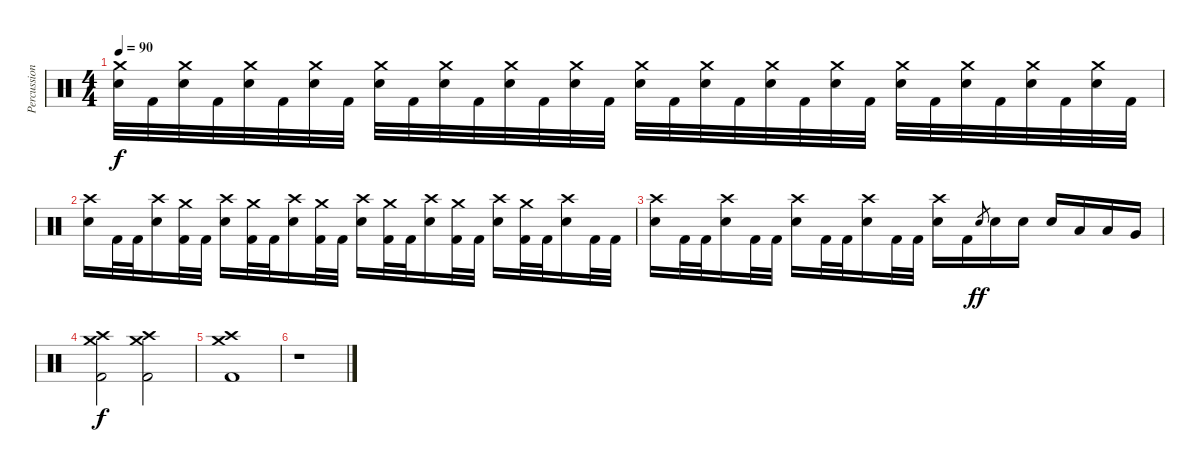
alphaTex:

\track ("Percussion" "Percussion") {instrument percussion}
\staff {score}
\articulation defaults
\ts (4 4)
\tempo 90
\clef neutral
\ks c
("Crash medium (hit)" "Electric Snare (hit)").32{dy f} "Kick (hit) 2".32 ("Crash medium (hit)" "Electric Snare (hit)").32 "Kick (hit) 2".32 ("Crash medium (hit)" "Electric Snare (hit)").32 "Kick (hit) 2".32 ("Crash medium (hit)" "Electric Snare (hit)").32 "Kick (hit) 2".32 ("Crash medium (hit)" "Electric Snare (hit)").32 "Kick (hit) 2".32 ("Crash medium (hit)" "Electric Snare (hit)").32 "Kick (hit) 2".32 ("Crash medium (hit)" "Electric Snare (hit)").32 "Kick (hit) 2".32 ("Crash medium (hit)" "Electric Snare (hit)").32 "Kick (hit) 2".32 ("Crash medium (hit)" "Electric Snare (hit)").32 "Kick (hit) 2".32 ("Crash medium (hit)" "Electric Snare (hit)").32 "Kick (hit) 2".32 ("Crash medium (hit)" "Electric Snare (hit)").32 "Kick (hit) 2".32 ("Crash medium (hit)" "Electric Snare (hit)").32 "Kick (hit) 2".32 ("Crash medium (hit)" "Electric Snare (hit)").32 "Kick (hit) 2".32 ("Crash medium (hit)" "Electric Snare (hit)").32 "Kick (hit) 2".32 ("Crash medium (hit)" "Electric Snare (hit)").32 "Kick (hit) 2".32 ("Crash medium (hit)" "Electric Snare (hit)").32 "Kick (hit) 2".32 |
("Crash high (hit)" "Electric Snare (hit)").16 "Kick (hit) 2".32 "Kick (hit) 2".32 ("Crash high (hit)" "Electric Snare (hit)").16 ("Crash medium (hit)" "Kick (hit) 2").32 "Kick (hit) 2".32 ("Crash high (hit)" "Electric Snare (hit)").16 ("Crash medium (hit)" "Kick (hit) 2").32 "Kick (hit) 2".32 ("Crash high (hit)" "Electric Snare (hit)").16 ("Crash medium (hit)" "Kick (hit) 2").32 "Kick (hit) 2".32 ("Crash high (hit)" "Electric Snare (hit)").16 ("Crash medium (hit)" "Kick (hit) 2").32 "Kick (hit) 2".32 ("Crash high (hit)" "Electric Snare (hit)").16 ("Crash medium (hit)" "Kick (hit) 2").32 "Kick (hit) 2".32 ("Crash high (hit)" "Electric Snare (hit)").16 ("Crash medium (hit)" "Kick (hit) 2").32 "Kick (hit) 2".32 ("Crash high (hit)" "Electric Snare (hit)").16 "Kick (hit) 2".32 "Kick (hit) 2".32 |
("Crash high (hit)" "Electric Snare (hit)").16 "Kick (hit) 2".32 "Kick (hit) 2".32 ("Crash high (hit)" "Electric Snare (hit)").16 "Kick (hit) 2".32 "Kick (hit) 2".32 ("Crash high (hit)" "Electric Snare (hit)").16 "Kick (hit) 2".32 "Kick (hit) 2".32 ("Crash high (hit)" "Electric Snare (hit)").16 "Kick (hit) 2".32 "Kick (hit) 2".32 ("Crash high (hit)" "Electric Snare (hit)").16 "Kick (hit) 2".16 "Electric Snare (hit)".8{gr dy ff} "Electric Snare (hit)".16 "Electric Snare (hit)".16 "Electric Snare (hit)".16 "Low Tom (hit)".16 "Low Tom (hit)".16 "Very Low Tom (hit)".16 |
("Crash medium (hit)" "Crash high (hit)" "Kick (hit) 2").2{dy f} ("Crash medium (hit)" "Crash high (hit)" "Kick (hit) 2").2 |
("Crash medium (hit)" "Crash high (hit)" "Kick (hit) 2").1 |
r.1
